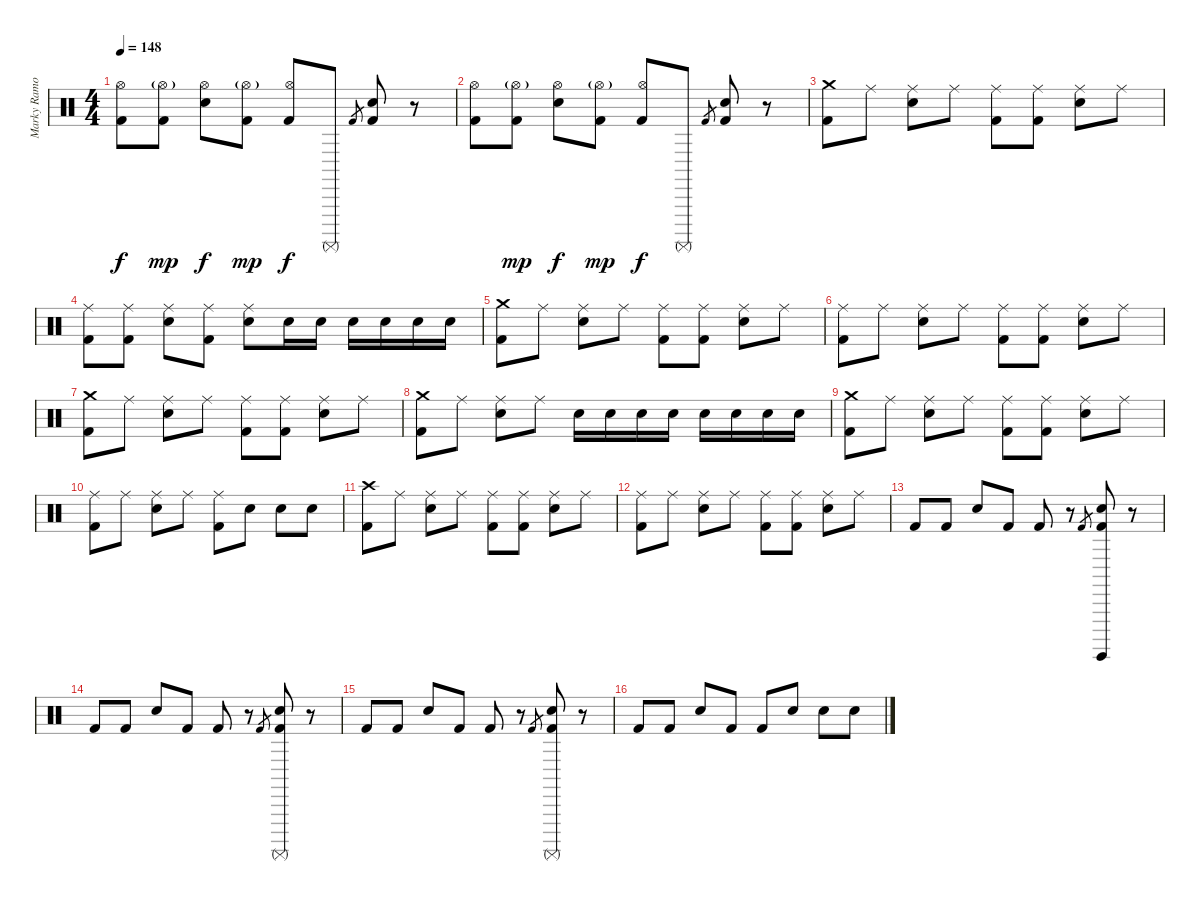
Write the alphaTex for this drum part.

\track ("Marky Ramone - Drums" "Marky Ramo") {instrument percussion}
\staff {score}
\articulation defaults
\ts (4 4)
\tempo 148
\clef neutral
\ks c
("Hi-Hat (open)" "Kick (hit) 2").8{dy f} ("Hi-Hat (open)"{g} "Kick (hit) 2").8{dy mp} ("Hi-Hat (open)" "Electric Snare (hit)").8{dy f} ("Hi-Hat (open)"{g} "Kick (hit) 2").8{dy mp} ("Hi-Hat (open)" "Kick (hit) 2").8{dy f} "Surdo (mute)".8 "Kick (hit) 2".8{gr} ("Electric Snare (hit)" "Kick (hit) 2").8{bd 480} r.8 |
("Hi-Hat (open)" "Kick (hit) 2").8 ("Hi-Hat (open)"{g} "Kick (hit) 2").8{dy mp} ("Hi-Hat (open)" "Electric Snare (hit)").8{dy f} ("Hi-Hat (open)"{g} "Kick (hit) 2").8{dy mp} ("Hi-Hat (open)" "Kick (hit) 2").8{dy f} "Surdo (mute)".8 "Kick (hit) 2".8{gr} ("Electric Snare (hit)" "Kick (hit) 2").8{bd 480} r.8 |
("Crash medium (hit)" "Kick (hit) 2").8 "Ride (middle)".8 ("Ride (middle)" "Electric Snare (hit)").8 "Ride (middle)".8 ("Ride (middle)" "Kick (hit) 2").8 ("Ride (middle)" "Kick (hit) 2").8 ("Ride (middle)" "Electric Snare (hit)").8 "Ride (middle)".8 |
("Ride (middle)" "Kick (hit) 2").8 ("Ride (middle)" "Kick (hit) 2").8 ("Ride (middle)" "Electric Snare (hit)").8 ("Ride (middle)" "Kick (hit) 2").8 ("Ride (middle)" "Electric Snare (hit)").8 "Electric Snare (hit)".16 "Electric Snare (hit)".16 "Electric Snare (hit)".16 "Electric Snare (hit)".16 "Electric Snare (hit)".16 "Electric Snare (hit)".16 |
("Crash medium (hit)" "Kick (hit) 2").8 "Ride (middle)".8 ("Ride (middle)" "Electric Snare (hit)").8 "Ride (middle)".8 ("Ride (middle)" "Kick (hit) 2").8 ("Ride (middle)" "Kick (hit) 2").8 ("Ride (middle)" "Electric Snare (hit)").8 "Ride (middle)".8 |
("Ride (middle)" "Kick (hit) 2").8 "Ride (middle)".8 ("Ride (middle)" "Electric Snare (hit)").8 "Ride (middle)".8 ("Ride (middle)" "Kick (hit) 2").8 ("Ride (middle)" "Kick (hit) 2").8 ("Ride (middle)" "Electric Snare (hit)").8 "Ride (middle)".8 |
("Crash medium (hit)" "Kick (hit) 2").8 "Ride (middle)".8 ("Ride (middle)" "Electric Snare (hit)").8 "Ride (middle)".8 ("Ride (middle)" "Kick (hit) 2").8 ("Ride (middle)" "Kick (hit) 2").8 ("Ride (middle)" "Electric Snare (hit)").8 "Ride (middle)".8 |
("Crash medium (hit)" "Kick (hit) 2").8 "Ride (middle)".8 ("Ride (middle)" "Electric Snare (hit)").8 "Ride (middle)".8 "Electric Snare (hit)".16 "Electric Snare (hit)".16 "Electric Snare (hit)".16 "Electric Snare (hit)".16 "Electric Snare (hit)".16 "Electric Snare (hit)".16 "Electric Snare (hit)".16 "Electric Snare (hit)".16 |
("Crash medium (hit)" "Kick (hit) 2").8 "Ride (middle)".8 ("Ride (middle)" "Electric Snare (hit)").8 "Ride (middle)".8 ("Ride (middle)" "Kick (hit) 2").8 ("Ride (middle)" "Kick (hit) 2").8 ("Ride (middle)" "Electric Snare (hit)").8 "Ride (middle)".8 |
("Ride (middle)" "Kick (hit) 2").8 "Ride (middle)".8 ("Ride (middle)" "Electric Snare (hit)").8 "Ride (middle)".8 ("Ride (middle)" "Kick (hit) 2").8 "Electric Snare (hit)".8 "Electric Snare (hit)".8 "Electric Snare (hit)".8 |
("Crash high (hit)" "Kick (hit) 2").8 "Ride (middle)".8 ("Ride (middle)" "Electric Snare (hit)").8 "Ride (middle)".8 ("Ride (middle)" "Kick (hit) 2").8 ("Ride (middle)" "Kick (hit) 2").8 ("Ride (middle)" "Electric Snare (hit)").8 "Ride (middle)".8 |
("Ride (middle)" "Kick (hit) 2").8 "Ride (middle)".8 ("Ride (middle)" "Electric Snare (hit)").8 "Ride (middle)".8 ("Ride (middle)" "Kick (hit) 2").8 ("Ride (middle)" "Kick (hit) 2").8 ("Ride (middle)" "Electric Snare (hit)").8 "Ride (middle)".8 |
"Kick (hit) 2".8 "Kick (hit) 2".8 "Electric Snare (hit)".8 "Kick (hit) 2".8 "Kick (hit) 2".8 r.8 "Kick (hit) 2".8{gr} ("Electric Snare (hit)" "Kick (hit) 2" "Surdo (hit)").8{bd 240} r.8 |
"Kick (hit) 2".8 "Kick (hit) 2".8 "Electric Snare (hit)".8 "Kick (hit) 2".8 "Kick (hit) 2".8 r.8 "Kick (hit) 2".8{gr} ("Electric Snare (hit)" "Kick (hit) 2" "Surdo (mute)").8{bd 240} r.8 |
"Kick (hit) 2".8 "Kick (hit) 2".8 "Electric Snare (hit)".8 "Kick (hit) 2".8 "Kick (hit) 2".8 r.8 "Kick (hit) 2".8{gr} ("Electric Snare (hit)" "Kick (hit) 2" "Surdo (mute)").8{bd 240} r.8 |
"Kick (hit) 2".8 "Kick (hit) 2".8 "Electric Snare (hit)".8 "Kick (hit) 2".8 "Kick (hit) 2".8 "Electric Snare (hit)".8 "Electric Snare (hit)".8 "Electric Snare (hit)".8
